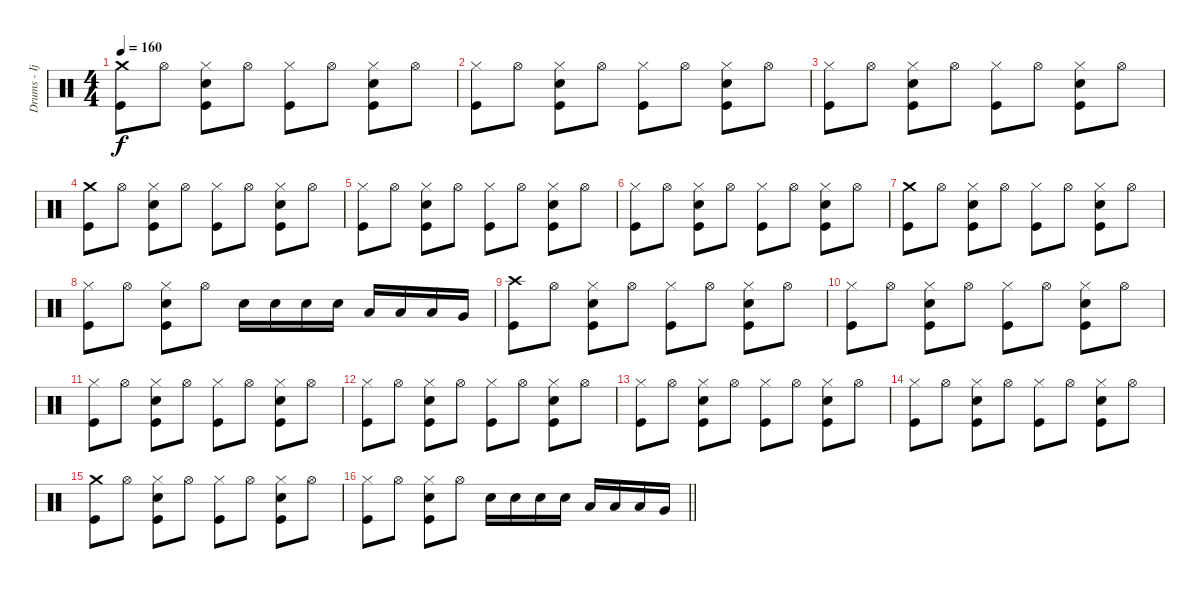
\track ("Drums - Ijichi" "Drums - Ij") {instrument percussion}
\staff {score}
\articulation defaults
\ts (4 4)
\tempo 160
\clef neutral
\ks c
("Crash medium (hit)" "Kick (hit)").8{dy f} "Hi-Hat (open)".8 ("Hi-Hat (closed)" "Electric Snare (hit)" "Kick (hit)").8 "Hi-Hat (open)".8 ("Hi-Hat (closed)" "Kick (hit)").8 "Hi-Hat (open)".8 ("Hi-Hat (closed)" "Electric Snare (hit)" "Kick (hit)").8 "Hi-Hat (open)".8 |
("Hi-Hat (closed)" "Kick (hit)").8 "Hi-Hat (open)".8 ("Hi-Hat (closed)" "Electric Snare (hit)" "Kick (hit)").8 "Hi-Hat (open)".8 ("Hi-Hat (closed)" "Kick (hit)").8 "Hi-Hat (open)".8 ("Hi-Hat (closed)" "Electric Snare (hit)" "Kick (hit)").8 "Hi-Hat (open)".8 |
("Hi-Hat (closed)" "Kick (hit)").8 "Hi-Hat (open)".8 ("Hi-Hat (closed)" "Electric Snare (hit)" "Kick (hit)").8 "Hi-Hat (open)".8 ("Hi-Hat (closed)" "Kick (hit)").8 "Hi-Hat (open)".8 ("Hi-Hat (closed)" "Electric Snare (hit)" "Kick (hit)").8 "Hi-Hat (open)".8 |
("Crash medium (hit)" "Kick (hit)").8 "Hi-Hat (open)".8 ("Hi-Hat (closed)" "Electric Snare (hit)" "Kick (hit)").8 "Hi-Hat (open)".8 ("Hi-Hat (closed)" "Kick (hit)").8 "Hi-Hat (open)".8 ("Hi-Hat (closed)" "Electric Snare (hit)" "Kick (hit)").8 "Hi-Hat (open)".8 |
("Hi-Hat (closed)" "Kick (hit)").8 "Hi-Hat (open)".8 ("Hi-Hat (closed)" "Electric Snare (hit)" "Kick (hit)").8 "Hi-Hat (open)".8 ("Hi-Hat (closed)" "Kick (hit)").8 "Hi-Hat (open)".8 ("Hi-Hat (closed)" "Electric Snare (hit)" "Kick (hit)").8 "Hi-Hat (open)".8 |
("Hi-Hat (closed)" "Kick (hit)").8 "Hi-Hat (open)".8 ("Hi-Hat (closed)" "Electric Snare (hit)" "Kick (hit)").8 "Hi-Hat (open)".8 ("Hi-Hat (closed)" "Kick (hit)").8 "Hi-Hat (open)".8 ("Hi-Hat (closed)" "Electric Snare (hit)" "Kick (hit)").8 "Hi-Hat (open)".8 |
("Crash medium (hit)" "Kick (hit)").8 "Hi-Hat (open)".8 ("Hi-Hat (closed)" "Electric Snare (hit)" "Kick (hit)").8 "Hi-Hat (open)".8 ("Hi-Hat (closed)" "Kick (hit)").8 "Hi-Hat (open)".8 ("Hi-Hat (closed)" "Electric Snare (hit)" "Kick (hit)").8 "Hi-Hat (open)".8 |
("Hi-Hat (closed)" "Kick (hit)").8 "Hi-Hat (open)".8 ("Hi-Hat (closed)" "Electric Snare (hit)" "Kick (hit)").8 "Hi-Hat (open)".8 "Electric Snare (hit)".16 "Electric Snare (hit)".16 "Electric Snare (hit)".16 "Electric Snare (hit)".16 "Low Floor Tom (hit)".16 "Low Floor Tom (hit)".16 "Low Tom (hit)".16 "Very Low Tom (hit)".16 |
("Crash high (hit)" "Kick (hit)").8 "Hi-Hat (open)".8 ("Hi-Hat (closed)" "Electric Snare (hit)" "Kick (hit)").8 "Hi-Hat (open)".8 ("Hi-Hat (closed)" "Kick (hit)").8 "Hi-Hat (open)".8 ("Hi-Hat (closed)" "Electric Snare (hit)" "Kick (hit)").8 "Hi-Hat (open)".8 |
("Hi-Hat (closed)" "Kick (hit)").8 "Hi-Hat (open)".8 ("Hi-Hat (closed)" "Electric Snare (hit)" "Kick (hit)").8 "Hi-Hat (open)".8 ("Hi-Hat (closed)" "Kick (hit)").8 "Hi-Hat (open)".8 ("Hi-Hat (closed)" "Electric Snare (hit)" "Kick (hit)").8 "Hi-Hat (open)".8 |
("Hi-Hat (closed)" "Kick (hit)").8 "Hi-Hat (open)".8 ("Hi-Hat (closed)" "Electric Snare (hit)" "Kick (hit)").8 "Hi-Hat (open)".8 ("Hi-Hat (closed)" "Kick (hit)").8 "Hi-Hat (open)".8 ("Hi-Hat (closed)" "Electric Snare (hit)" "Kick (hit)").8 "Hi-Hat (open)".8 |
("Hi-Hat (closed)" "Kick (hit)").8 "Hi-Hat (open)".8 ("Hi-Hat (closed)" "Electric Snare (hit)" "Kick (hit)").8 "Hi-Hat (open)".8 ("Hi-Hat (closed)" "Kick (hit)").8 "Hi-Hat (open)".8 ("Hi-Hat (closed)" "Electric Snare (hit)" "Kick (hit)").8 "Hi-Hat (open)".8 |
("Hi-Hat (closed)" "Kick (hit)").8 "Hi-Hat (open)".8 ("Hi-Hat (closed)" "Electric Snare (hit)" "Kick (hit)").8 "Hi-Hat (open)".8 ("Hi-Hat (closed)" "Kick (hit)").8 "Hi-Hat (open)".8 ("Hi-Hat (closed)" "Electric Snare (hit)" "Kick (hit)").8 "Hi-Hat (open)".8 |
("Hi-Hat (closed)" "Kick (hit)").8 "Hi-Hat (open)".8 ("Hi-Hat (closed)" "Electric Snare (hit)" "Kick (hit)").8 "Hi-Hat (open)".8 ("Hi-Hat (closed)" "Kick (hit)").8 "Hi-Hat (open)".8 ("Hi-Hat (closed)" "Electric Snare (hit)" "Kick (hit)").8 "Hi-Hat (open)".8 |
("Crash medium (hit)" "Kick (hit)").8 "Hi-Hat (open)".8 ("Hi-Hat (closed)" "Electric Snare (hit)" "Kick (hit)").8 "Hi-Hat (open)".8 ("Hi-Hat (closed)" "Kick (hit)").8 "Hi-Hat (open)".8 ("Hi-Hat (closed)" "Electric Snare (hit)" "Kick (hit)").8 "Hi-Hat (open)".8 |
\barLineRight lightlight
("Hi-Hat (closed)" "Kick (hit)").8 "Hi-Hat (open)".8 ("Hi-Hat (closed)" "Electric Snare (hit)" "Kick (hit)").8 "Hi-Hat (open)".8 "Electric Snare (hit)".16 "Electric Snare (hit)".16 "Electric Snare (hit)".16 "Electric Snare (hit)".16 "Low Floor Tom (hit)".16 "Low Floor Tom (hit)".16 "Low Tom (hit)".16 "Very Low Tom (hit)".16
